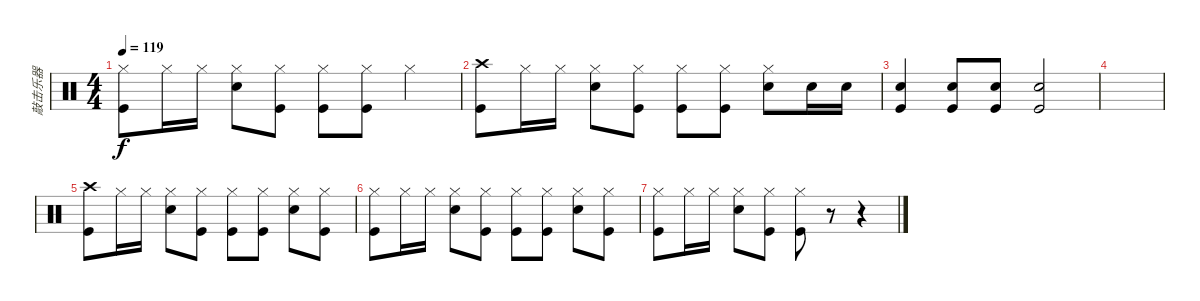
\track ("敲击乐器" "敲击乐器") {instrument percussion}
\staff {score}
\articulation defaults
\ts (4 4)
\tempo 119
\clef neutral
\ks c
("Hi-Hat (closed)" "Kick (hit)").8{dy f} "Hi-Hat (closed)".16 "Hi-Hat (closed)".16 ("Hi-Hat (closed)" "Electric Snare (hit)").8 ("Hi-Hat (closed)" "Kick (hit)").8 ("Hi-Hat (closed)" "Kick (hit)").8 ("Hi-Hat (closed)" "Kick (hit)").8 "Hi-Hat (closed)".4 |
("Crash high (hit)" "Kick (hit)").8 "Hi-Hat (closed)".16 "Hi-Hat (closed)".16 ("Hi-Hat (closed)" "Electric Snare (hit)").8 ("Hi-Hat (closed)" "Kick (hit)").8 ("Hi-Hat (closed)" "Kick (hit)").8 ("Hi-Hat (closed)" "Kick (hit)").8 ("Hi-Hat (closed)" "Electric Snare (hit)").8 "Electric Snare (hit)".16 "Electric Snare (hit)".16 |
("Electric Snare (hit)" "Kick (hit)").4 ("Electric Snare (hit)" "Kick (hit)").8 ("Electric Snare (hit)" "Kick (hit)").8 ("Electric Snare (hit)" "Kick (hit)").2 |
|
("Crash high (hit)" "Kick (hit)").8 "Hi-Hat (closed)".16 "Hi-Hat (closed)".16 ("Hi-Hat (closed)" "Electric Snare (hit)").8 ("Hi-Hat (closed)" "Kick (hit)").8 ("Hi-Hat (closed)" "Kick (hit)").8 ("Hi-Hat (closed)" "Kick (hit)").8 ("Hi-Hat (closed)" "Electric Snare (hit)").8 ("Hi-Hat (closed)" "Kick (hit)").8 |
("Hi-Hat (closed)" "Kick (hit)").8 "Hi-Hat (closed)".16 "Hi-Hat (closed)".16 ("Hi-Hat (closed)" "Electric Snare (hit)").8 ("Hi-Hat (closed)" "Kick (hit)").8 ("Hi-Hat (closed)" "Kick (hit)").8 ("Hi-Hat (closed)" "Kick (hit)").8 ("Hi-Hat (closed)" "Electric Snare (hit)").8 ("Hi-Hat (closed)" "Kick (hit)").8 |
("Hi-Hat (closed)" "Kick (hit)").8 "Hi-Hat (closed)".16 "Hi-Hat (closed)".16 ("Hi-Hat (closed)" "Electric Snare (hit)").8 ("Hi-Hat (closed)" "Kick (hit)").8 ("Hi-Hat (closed)" "Kick (hit)").8 r.8 r.4
